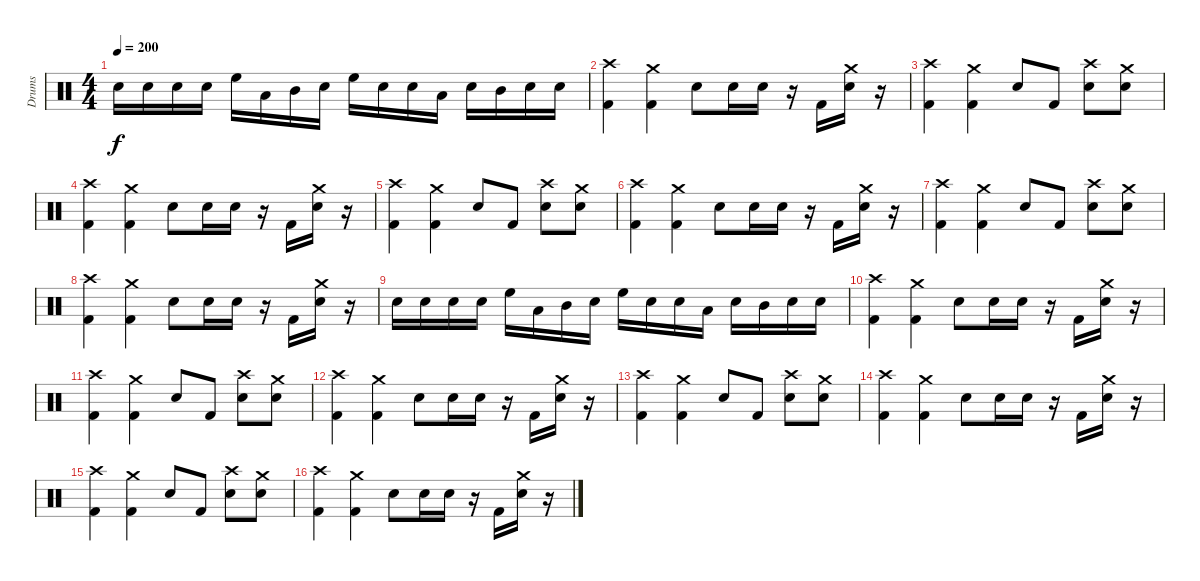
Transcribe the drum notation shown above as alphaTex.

\track ("Drums" "Drums") {instrument percussion}
\staff {score}
\articulation defaults
\ts (4 4)
\tempo 200
\clef neutral
\ks c "Electric Snare (hit)".16{dy f} "Electric Snare (hit)".16 "Electric Snare (hit)".16 "Electric Snare (hit)".16 "High Floor Tom (hit)".16 "Low Tom (hit)".16 "Mid Tom (hit)".16 "Electric Snare (hit)".16 "High Floor Tom (hit)".16 "Electric Snare (hit)".16 "Electric Snare (hit)".16 "Low Tom (hit)".16 "Electric Snare (hit)".16 "Mid Tom (hit)".16 "Electric Snare (hit)".16 "Electric Snare (hit)".16
|
("Crash high (hit)" "Kick (hit) 2").4 ("Crash medium (hit)" "Kick (hit) 2").4 "Electric Snare (hit)".8 "Electric Snare (hit)".16 "Electric Snare (hit)".16 r.16 "Kick (hit) 2".16 ("Electric Snare (hit)" "Crash medium (hit)").16 r.16 |
("Crash high (hit)" "Kick (hit) 2").4 ("Crash medium (hit)" "Kick (hit) 2").4 "Electric Snare (hit)".8 "Kick (hit) 2".8 ("Electric Snare (hit)" "Crash high (hit)").8 ("Electric Snare (hit)" "Crash medium (hit)").8 |
("Crash high (hit)" "Kick (hit) 2").4 ("Crash medium (hit)" "Kick (hit) 2").4 "Electric Snare (hit)".8 "Electric Snare (hit)".16 "Electric Snare (hit)".16 r.16 "Kick (hit) 2".16 ("Electric Snare (hit)" "Crash medium (hit)").16 r.16 |
("Crash high (hit)" "Kick (hit) 2").4 ("Crash medium (hit)" "Kick (hit) 2").4 "Electric Snare (hit)".8 "Kick (hit) 2".8 ("Electric Snare (hit)" "Crash high (hit)").8 ("Electric Snare (hit)" "Crash medium (hit)").8 |
("Crash high (hit)" "Kick (hit) 2").4 ("Crash medium (hit)" "Kick (hit) 2").4 "Electric Snare (hit)".8 "Electric Snare (hit)".16 "Electric Snare (hit)".16 r.16 "Kick (hit) 2".16 ("Electric Snare (hit)" "Crash medium (hit)").16 r.16 |
("Crash high (hit)" "Kick (hit) 2").4 ("Crash medium (hit)" "Kick (hit) 2").4 "Electric Snare (hit)".8 "Kick (hit) 2".8 ("Electric Snare (hit)" "Crash high (hit)").8 ("Electric Snare (hit)" "Crash medium (hit)").8 |
("Crash high (hit)" "Kick (hit) 2").4 ("Crash medium (hit)" "Kick (hit) 2").4 "Electric Snare (hit)".8 "Electric Snare (hit)".16 "Electric Snare (hit)".16 r.16 "Kick (hit) 2".16 ("Electric Snare (hit)" "Crash medium (hit)").16 r.16 |
"Electric Snare (hit)".16 "Electric Snare (hit)".16 "Electric Snare (hit)".16 "Electric Snare (hit)".16 "High Floor Tom (hit)".16 "Low Tom (hit)".16 "Mid Tom (hit)".16 "Electric Snare (hit)".16 "High Floor Tom (hit)".16 "Electric Snare (hit)".16 "Electric Snare (hit)".16 "Low Tom (hit)".16 "Electric Snare (hit)".16 "Mid Tom (hit)".16 "Electric Snare (hit)".16 "Electric Snare (hit)".16 |
("Crash high (hit)" "Kick (hit) 2").4 ("Crash medium (hit)" "Kick (hit) 2").4 "Electric Snare (hit)".8 "Electric Snare (hit)".16 "Electric Snare (hit)".16 r.16 "Kick (hit) 2".16 ("Electric Snare (hit)" "Crash medium (hit)").16 r.16 |
("Crash high (hit)" "Kick (hit) 2").4 ("Crash medium (hit)" "Kick (hit) 2").4 "Electric Snare (hit)".8 "Kick (hit) 2".8 ("Electric Snare (hit)" "Crash high (hit)").8 ("Electric Snare (hit)" "Crash medium (hit)").8 |
("Crash high (hit)" "Kick (hit) 2").4 ("Crash medium (hit)" "Kick (hit) 2").4 "Electric Snare (hit)".8 "Electric Snare (hit)".16 "Electric Snare (hit)".16 r.16 "Kick (hit) 2".16 ("Electric Snare (hit)" "Crash medium (hit)").16 r.16 |
("Crash high (hit)" "Kick (hit) 2").4 ("Crash medium (hit)" "Kick (hit) 2").4 "Electric Snare (hit)".8 "Kick (hit) 2".8 ("Electric Snare (hit)" "Crash high (hit)").8 ("Electric Snare (hit)" "Crash medium (hit)").8 |
("Crash high (hit)" "Kick (hit) 2").4 ("Crash medium (hit)" "Kick (hit) 2").4 "Electric Snare (hit)".8 "Electric Snare (hit)".16 "Electric Snare (hit)".16 r.16 "Kick (hit) 2".16 ("Electric Snare (hit)" "Crash medium (hit)").16 r.16 |
("Crash high (hit)" "Kick (hit) 2").4 ("Crash medium (hit)" "Kick (hit) 2").4 "Electric Snare (hit)".8 "Kick (hit) 2".8 ("Electric Snare (hit)" "Crash high (hit)").8 ("Electric Snare (hit)" "Crash medium (hit)").8 |
("Crash high (hit)" "Kick (hit) 2").4 ("Crash medium (hit)" "Kick (hit) 2").4 "Electric Snare (hit)".8 "Electric Snare (hit)".16 "Electric Snare (hit)".16 r.16 "Kick (hit) 2".16 ("Electric Snare (hit)" "Crash medium (hit)").16 r.16
